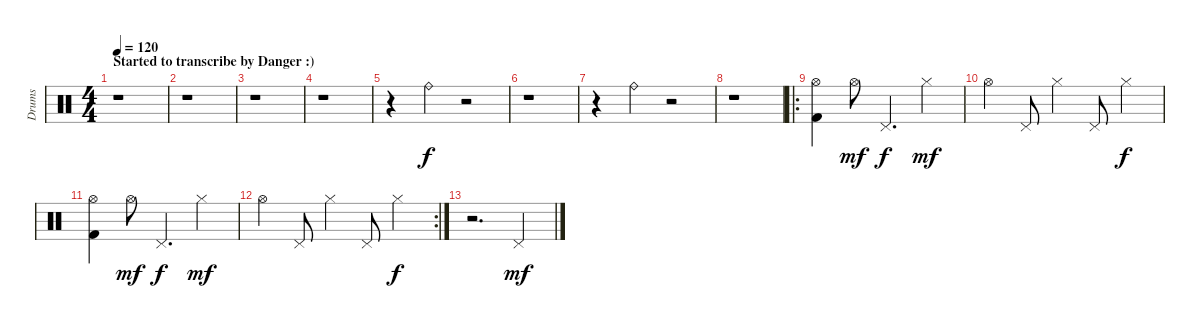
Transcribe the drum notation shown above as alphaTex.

\track ("Drums" "Drums") {instrument percussion}
\staff {score}
\articulation defaults
\ts (4 4)
\section ("" "Started to transcribe by Danger :)")
\tempo 120
\clef neutral
\ks c
r.1{dy f} |
r.1 |
r.1 |
r.1 |
r.4 "Ride (bell)".4 r.2 |
r.1 |
r.4 "Ride (bell)".4 r.2 |
r.1 |
\ro
("Hi-Hat (open)" "Kick (hit) 2").4 "Hi-Hat (open)".8{dy mf} "Pedal Hi-Hat (hit)".4{d dy f} "Hi-Hat (closed)".4{dy mf} |
"Hi-Hat (open)".4 "Pedal Hi-Hat (hit)".8 "Hi-Hat (closed)".4 "Pedal Hi-Hat (hit)".8 "Hi-Hat (closed)".4{dy f} |
("Hi-Hat (open)" "Kick (hit) 2").4 "Hi-Hat (open)".8{dy mf} "Pedal Hi-Hat (hit)".4{d dy f} "Hi-Hat (closed)".4{dy mf} |
\rc 2 "Hi-Hat (open)".4 "Pedal Hi-Hat (hit)".8 "Hi-Hat (closed)".4 "Pedal Hi-Hat (hit)".8 "Hi-Hat (closed)".4{dy f}
|
r.2{d} "Pedal Hi-Hat (hit)".4{dy mf}
